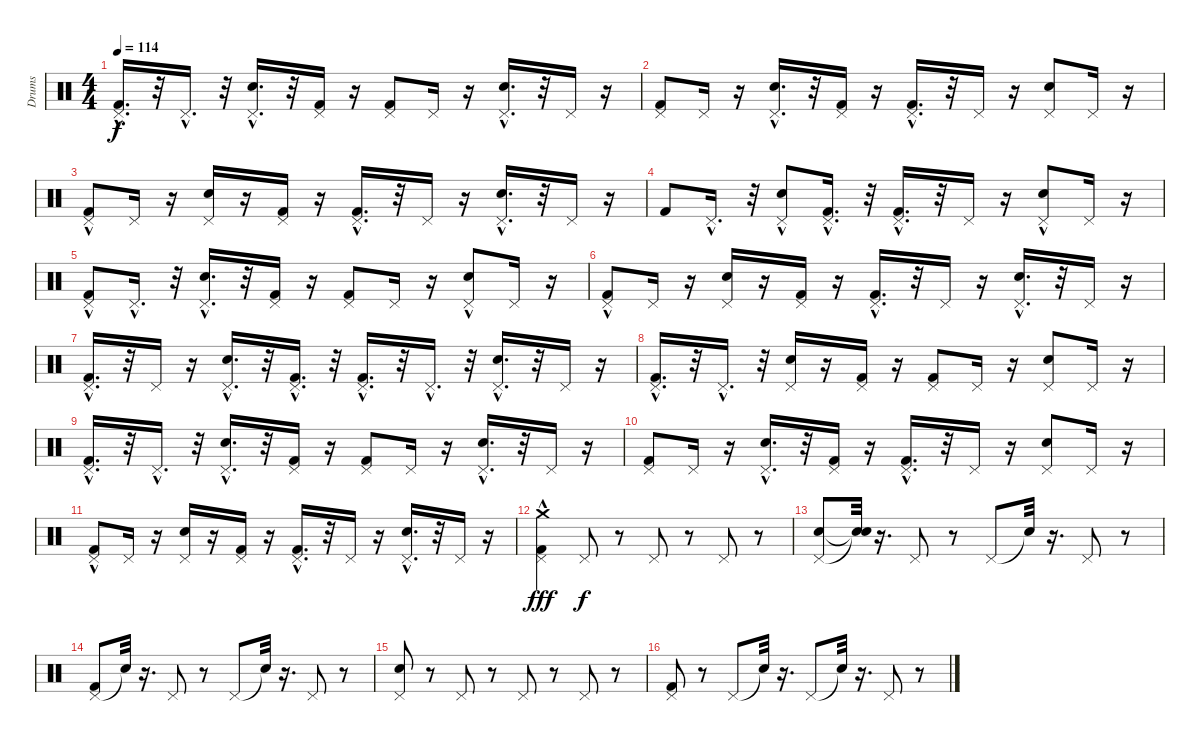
\track ("Drums" "Drums") {instrument percussion}
\staff {score}
\articulation defaults
\ts (4 4)
\tempo 114
\clef neutral
\ks c
("Pedal Hi-Hat (hit)" "Kick (hit) 2"{hac}).16{d dy f} r.32 "Pedal Hi-Hat (hit)"{hac}.16{d} r.32 ("Pedal Hi-Hat (hit)" "Snare (hit) 2"{hac}).16{d} r.32 ("Pedal Hi-Hat (hit)" "Kick (hit) 2").16 r.16 ("Pedal Hi-Hat (hit)" "Kick (hit) 2").8 "Pedal Hi-Hat (hit)".16 r.16 ("Pedal Hi-Hat (hit)" "Snare (hit) 2"{hac}).16{d} r.32 "Pedal Hi-Hat (hit)".16 r.16 |
("Pedal Hi-Hat (hit)" "Kick (hit) 2").8 "Pedal Hi-Hat (hit)".16 r.16 ("Pedal Hi-Hat (hit)" "Snare (hit) 2"{hac}).16{d} r.32 ("Pedal Hi-Hat (hit)" "Kick (hit) 2").16 r.16 ("Pedal Hi-Hat (hit)" "Kick (hit) 2"{hac}).16{d} r.32 "Pedal Hi-Hat (hit)".16 r.16 ("Pedal Hi-Hat (hit)" "Snare (hit) 2").8 "Pedal Hi-Hat (hit)".16 r.16 |
("Pedal Hi-Hat (hit)"{hac} "Kick (hit) 2").8 "Pedal Hi-Hat (hit)".16 r.16 ("Pedal Hi-Hat (hit)" "Snare (hit) 2").16 r.16 ("Pedal Hi-Hat (hit)" "Kick (hit) 2").16 r.16 ("Pedal Hi-Hat (hit)" "Kick (hit) 2"{hac}).16{d} r.32 "Pedal Hi-Hat (hit)".16 r.16 ("Pedal Hi-Hat (hit)" "Snare (hit) 2"{hac}).16{d} r.32 "Pedal Hi-Hat (hit)".16 r.16 |
"Kick (hit) 2".8 "Pedal Hi-Hat (hit)"{hac}.16{d} r.32 ("Pedal Hi-Hat (hit)"{hac} "Snare (hit) 2").8 ("Pedal Hi-Hat (hit)"{hac} "Kick (hit) 2").16{d} r.32 ("Pedal Hi-Hat (hit)"{hac} "Kick (hit) 2"{hac}).16{d} r.32 "Pedal Hi-Hat (hit)".16 r.16 ("Pedal Hi-Hat (hit)"{hac} "Snare (hit) 2").8 "Pedal Hi-Hat (hit)".16 r.16 |
("Pedal Hi-Hat (hit)"{hac} "Kick (hit) 2").8 "Pedal Hi-Hat (hit)"{hac}.16{d} r.32 ("Pedal Hi-Hat (hit)"{hac} "Snare (hit) 2").16{d} r.32 ("Pedal Hi-Hat (hit)" "Kick (hit) 2").16 r.16 ("Pedal Hi-Hat (hit)" "Kick (hit) 2").8 "Pedal Hi-Hat (hit)".16 r.16 ("Pedal Hi-Hat (hit)"{hac} "Snare (hit) 2").8 "Pedal Hi-Hat (hit)".16 r.16 |
("Pedal Hi-Hat (hit)"{hac} "Kick (hit) 2").8 "Pedal Hi-Hat (hit)".16 r.16 ("Pedal Hi-Hat (hit)" "Snare (hit) 2").16 r.16 ("Pedal Hi-Hat (hit)" "Kick (hit) 2").16 r.16 ("Pedal Hi-Hat (hit)"{hac} "Kick (hit) 2").16{d} r.32 "Pedal Hi-Hat (hit)".16 r.16 ("Pedal Hi-Hat (hit)"{hac} "Snare (hit) 2"{hac}).16{d} r.32 "Pedal Hi-Hat (hit)".16 r.16 |
("Pedal Hi-Hat (hit)"{hac} "Kick (hit) 2"{hac}).16{d} r.32 "Pedal Hi-Hat (hit)".16 r.16 ("Pedal Hi-Hat (hit)"{hac} "Snare (hit) 2"{hac}).16{d} r.32 ("Pedal Hi-Hat (hit)"{hac} "Kick (hit) 2").16{d} r.32 ("Pedal Hi-Hat (hit)" "Kick (hit) 2"{hac}).16{d} r.32 "Pedal Hi-Hat (hit)"{hac}.16{d} r.32 ("Pedal Hi-Hat (hit)"{hac} "Snare (hit) 2"{hac}).16{d} r.32 "Pedal Hi-Hat (hit)".16 r.16 |
("Pedal Hi-Hat (hit)"{hac} "Kick (hit) 2"{hac}).16{d} r.32 "Pedal Hi-Hat (hit)"{hac}.16{d} r.32 ("Pedal Hi-Hat (hit)" "Snare (hit) 2").16 r.16 ("Pedal Hi-Hat (hit)" "Kick (hit) 2").16 r.16 ("Pedal Hi-Hat (hit)" "Kick (hit) 2").8 "Pedal Hi-Hat (hit)".16 r.16 ("Snare (hit) 2" "Pedal Hi-Hat (hit)").8 "Pedal Hi-Hat (hit)".16 r.16 |
("Pedal Hi-Hat (hit)" "Kick (hit) 2"{hac}).16{d} r.32 "Pedal Hi-Hat (hit)"{hac}.16{d} r.32 ("Pedal Hi-Hat (hit)" "Snare (hit) 2"{hac}).16{d} r.32 ("Pedal Hi-Hat (hit)" "Kick (hit) 2").16 r.16 ("Pedal Hi-Hat (hit)" "Kick (hit) 2").8 "Pedal Hi-Hat (hit)".16 r.16 ("Pedal Hi-Hat (hit)" "Snare (hit) 2"{hac}).16{d} r.32 "Pedal Hi-Hat (hit)".16 r.16 |
("Pedal Hi-Hat (hit)" "Kick (hit) 2").8 "Pedal Hi-Hat (hit)".16 r.16 ("Pedal Hi-Hat (hit)" "Snare (hit) 2"{hac}).16{d} r.32 ("Pedal Hi-Hat (hit)" "Kick (hit) 2").16 r.16 ("Pedal Hi-Hat (hit)" "Kick (hit) 2"{hac}).16{d} r.32 "Pedal Hi-Hat (hit)".16 r.16 ("Pedal Hi-Hat (hit)" "Snare (hit) 2").8 "Pedal Hi-Hat (hit)".16 r.16 |
("Pedal Hi-Hat (hit)"{hac} "Kick (hit) 2").8 "Pedal Hi-Hat (hit)".16 r.16 ("Pedal Hi-Hat (hit)" "Snare (hit) 2").16 r.16 ("Pedal Hi-Hat (hit)" "Kick (hit) 2").16 r.16 ("Pedal Hi-Hat (hit)" "Kick (hit) 2"{hac}).16{d} r.32 "Pedal Hi-Hat (hit)".16 r.16 ("Pedal Hi-Hat (hit)" "Snare (hit) 2"{hac}).16{d} r.32 "Pedal Hi-Hat (hit)".16 r.16 |
("Crash medium (hit)" "Kick (hit) 2" "Pedal Hi-Hat (hit)"{hac}).4{dy fff} "Pedal Hi-Hat (hit)".8{dy f} r.8 "Pedal Hi-Hat (hit)".8 r.8 "Pedal Hi-Hat (hit)".8 r.8 |
("Pedal Hi-Hat (hit)" "Snare (hit) 2").8 ("Snare (hit)"{t} "Snare (hit)"{t}).32 r.16{d} "Pedal Hi-Hat (hit)".8 r.8 "Pedal Hi-Hat (hit)".8 "Snare (hit)"{t}.32 r.16{d} "Pedal Hi-Hat (hit)".8 r.8 |
("Pedal Hi-Hat (hit)" "Kick (hit) 2").8 "Snare (hit)"{t}.32 r.16{d} "Pedal Hi-Hat (hit)".8 r.8 "Pedal Hi-Hat (hit)".8 "Snare (hit)"{t}.32 r.16{d} "Pedal Hi-Hat (hit)".8 r.8 |
("Pedal Hi-Hat (hit)" "Snare (hit) 2").8 r.8 "Pedal Hi-Hat (hit)".8 r.8 "Pedal Hi-Hat (hit)".8 r.8 "Pedal Hi-Hat (hit)".8 r.8 |
("Pedal Hi-Hat (hit)" "Kick (hit) 2").8 r.8 "Pedal Hi-Hat (hit)".8 "Snare (hit)"{t}.32 r.16{d} "Pedal Hi-Hat (hit)".8 "Snare (hit)"{t}.32 r.16{d} "Pedal Hi-Hat (hit)".8 r.8
